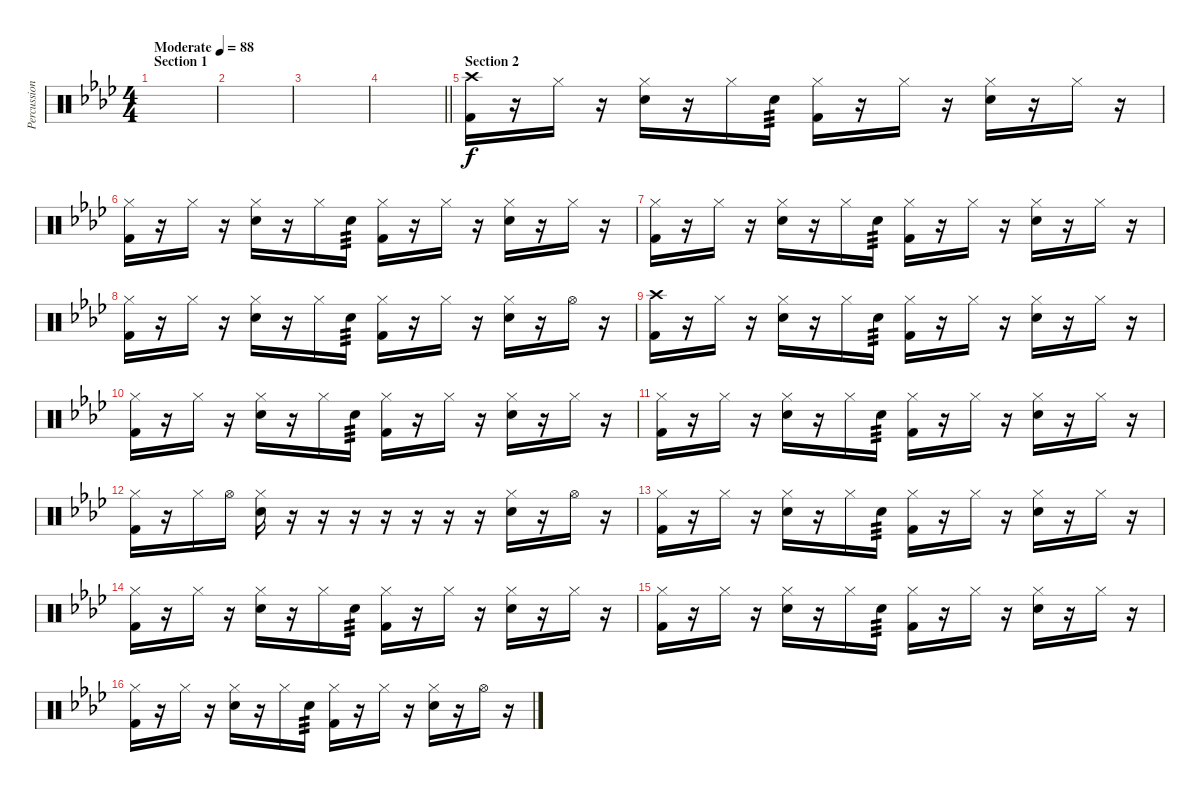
\track ("Percussion" "Percussion") {instrument percussion}
\staff {score}
\articulation defaults
\ts (4 4)
\section ("" "Section 1")
\tempo (88 "Moderate")
\clef neutral
\ks fminor
|
|
|
\barLineRight lightlight
|
\section ("" "Section 2")
("Crash high (hit)" "Kick (hit) 2").16 r.16 "Hi-Hat (closed)".16 r.16 ("Hi-Hat (closed)" "Snare (hit) 2").16 r.16 "Hi-Hat (closed)".16 "Snare (hit) 2".16{tp 3} ("Hi-Hat (closed)" "Kick (hit) 2").16 r.16 "Hi-Hat (closed)".16 r.16 ("Hi-Hat (closed)" "Snare (hit) 2").16 r.16 "Hi-Hat (closed)".16 r.16 |
("Hi-Hat (closed)" "Kick (hit) 2").16 r.16 "Hi-Hat (closed)".16 r.16 ("Hi-Hat (closed)" "Snare (hit) 2").16 r.16 "Hi-Hat (closed)".16 "Snare (hit) 2".16{tp 3} ("Hi-Hat (closed)" "Kick (hit) 2").16 r.16 "Hi-Hat (closed)".16 r.16 ("Hi-Hat (closed)" "Snare (hit) 2").16 r.16 "Hi-Hat (closed)".16 r.16 |
("Hi-Hat (closed)" "Kick (hit) 2").16 r.16 "Hi-Hat (closed)".16 r.16 ("Hi-Hat (closed)" "Snare (hit) 2").16 r.16 "Hi-Hat (closed)".16 "Snare (hit) 2".16{tp 3} ("Hi-Hat (closed)" "Kick (hit) 2").16 r.16 "Hi-Hat (closed)".16 r.16 ("Hi-Hat (closed)" "Snare (hit) 2").16 r.16 "Hi-Hat (closed)".16 r.16 |
("Hi-Hat (closed)" "Kick (hit) 2").16 r.16 "Hi-Hat (closed)".16 r.16 ("Hi-Hat (closed)" "Snare (hit) 2").16 r.16 "Hi-Hat (closed)".16 "Snare (hit) 2".16{tp 3} ("Hi-Hat (closed)" "Kick (hit) 2").16 r.16 "Hi-Hat (closed)".16 r.16 ("Hi-Hat (closed)" "Snare (hit) 2").16 r.16 "Hi-Hat (open)".16 r.16 |
("Crash high (hit)" "Kick (hit) 2").16 r.16 "Hi-Hat (closed)".16 r.16 ("Hi-Hat (closed)" "Snare (hit) 2").16 r.16 "Hi-Hat (closed)".16 "Snare (hit) 2".16{tp 3} ("Hi-Hat (closed)" "Kick (hit) 2").16 r.16 "Hi-Hat (closed)".16 r.16 ("Hi-Hat (closed)" "Snare (hit) 2").16 r.16 "Hi-Hat (closed)".16 r.16 |
("Hi-Hat (closed)" "Kick (hit) 2").16 r.16 "Hi-Hat (closed)".16 r.16 ("Hi-Hat (closed)" "Snare (hit) 2").16 r.16 "Hi-Hat (closed)".16 "Snare (hit) 2".16{tp 3} ("Hi-Hat (closed)" "Kick (hit) 2").16 r.16 "Hi-Hat (closed)".16 r.16 ("Hi-Hat (closed)" "Snare (hit) 2").16 r.16 "Hi-Hat (closed)".16 r.16 |
("Hi-Hat (closed)" "Kick (hit) 2").16 r.16 "Hi-Hat (closed)".16 r.16 ("Hi-Hat (closed)" "Snare (hit) 2").16 r.16 "Hi-Hat (closed)".16 "Snare (hit) 2".16{tp 3} ("Hi-Hat (closed)" "Kick (hit) 2").16 r.16 "Hi-Hat (closed)".16 r.16 ("Hi-Hat (closed)" "Snare (hit) 2").16 r.16 "Hi-Hat (closed)".16 r.16 |
("Hi-Hat (closed)" "Kick (hit) 2").16 r.16 "Hi-Hat (closed)".16 "Hi-Hat (open)".16 ("Hi-Hat (closed)" "Snare (hit) 2").16 r.16 r.16 r.16 r.16 r.16 r.16 r.16 ("Hi-Hat (closed)" "Snare (hit) 2").16 r.16 "Hi-Hat (open)".16 r.16 |
("Hi-Hat (closed)" "Kick (hit) 2").16 r.16 "Hi-Hat (closed)".16 r.16 ("Hi-Hat (closed)" "Snare (hit) 2").16 r.16 "Hi-Hat (closed)".16 "Snare (hit) 2".16{tp 3} ("Hi-Hat (closed)" "Kick (hit) 2").16 r.16 "Hi-Hat (closed)".16 r.16 ("Hi-Hat (closed)" "Snare (hit) 2").16 r.16 "Hi-Hat (closed)".16 r.16 |
("Hi-Hat (closed)" "Kick (hit) 2").16 r.16 "Hi-Hat (closed)".16 r.16 ("Hi-Hat (closed)" "Snare (hit) 2").16 r.16 "Hi-Hat (closed)".16 "Snare (hit) 2".16{tp 3} ("Hi-Hat (closed)" "Kick (hit) 2").16 r.16 "Hi-Hat (closed)".16 r.16 ("Hi-Hat (closed)" "Snare (hit) 2").16 r.16 "Hi-Hat (closed)".16 r.16 |
("Hi-Hat (closed)" "Kick (hit) 2").16 r.16 "Hi-Hat (closed)".16 r.16 ("Hi-Hat (closed)" "Snare (hit) 2").16 r.16 "Hi-Hat (closed)".16 "Snare (hit) 2".16{tp 3} ("Hi-Hat (closed)" "Kick (hit) 2").16 r.16 "Hi-Hat (closed)".16 r.16 ("Hi-Hat (closed)" "Snare (hit) 2").16 r.16 "Hi-Hat (closed)".16 r.16 |
("Hi-Hat (closed)" "Kick (hit) 2").16 r.16 "Hi-Hat (closed)".16 r.16 ("Hi-Hat (closed)" "Snare (hit) 2").16 r.16 "Hi-Hat (closed)".16 "Snare (hit) 2".16{tp 3} ("Hi-Hat (closed)" "Kick (hit) 2").16 r.16 "Hi-Hat (closed)".16 r.16 ("Hi-Hat (closed)" "Snare (hit) 2").16 r.16 "Hi-Hat (open)".16 r.16
